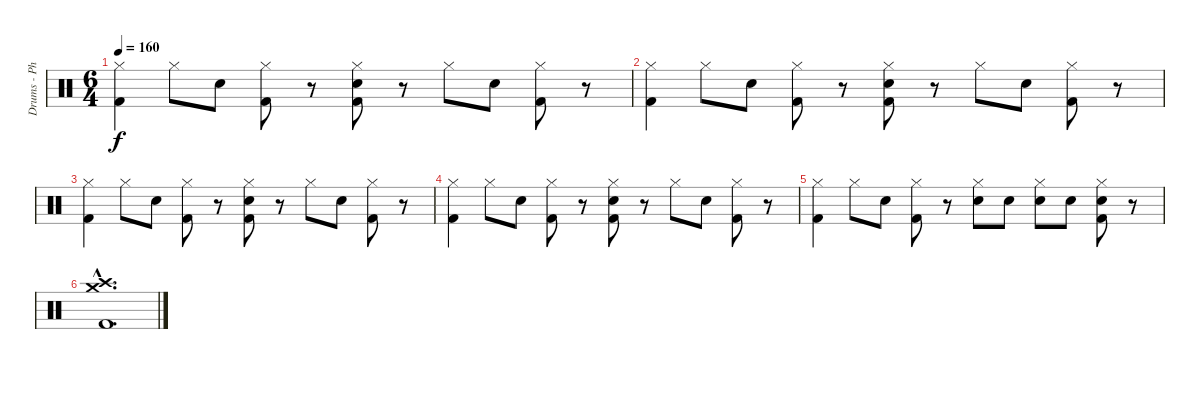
\track ("Drums - Phil Selway" "Drums - Ph") {instrument percussion}
\staff {score}
\articulation defaults
\ts (6 4)
\tempo 160
\clef neutral
\ks c
("Hi-Hat (closed)" "Kick (hit) 2").4{dy f} "Hi-Hat (closed)".8 "Snare (hit) 2".8 ("Hi-Hat (closed)" "Kick (hit) 2").8 r.8 ("Hi-Hat (closed)" "Snare (hit) 2" "Kick (hit) 2").8 r.8 "Hi-Hat (closed)".8 "Snare (hit) 2".8 ("Hi-Hat (closed)" "Kick (hit) 2").8 r.8 |
("Hi-Hat (closed)" "Kick (hit) 2").4 "Hi-Hat (closed)".8 "Snare (hit) 2".8 ("Hi-Hat (closed)" "Kick (hit) 2").8 r.8 ("Hi-Hat (closed)" "Snare (hit) 2" "Kick (hit) 2").8 r.8 "Hi-Hat (closed)".8 "Snare (hit) 2".8 ("Hi-Hat (closed)" "Kick (hit) 2").8 r.8 |
("Hi-Hat (closed)" "Kick (hit) 2").4 "Hi-Hat (closed)".8 "Snare (hit) 2".8 ("Hi-Hat (closed)" "Kick (hit) 2").8 r.8 ("Hi-Hat (closed)" "Snare (hit) 2" "Kick (hit) 2").8 r.8 "Hi-Hat (closed)".8 "Snare (hit) 2".8 ("Hi-Hat (closed)" "Kick (hit) 2").8 r.8 |
("Hi-Hat (closed)" "Kick (hit) 2").4 "Hi-Hat (closed)".8 "Snare (hit) 2".8 ("Hi-Hat (closed)" "Kick (hit) 2").8 r.8 ("Hi-Hat (closed)" "Snare (hit) 2" "Kick (hit) 2").8 r.8 "Hi-Hat (closed)".8 "Snare (hit) 2".8 ("Hi-Hat (closed)" "Kick (hit) 2").8 r.8 |
("Hi-Hat (closed)" "Kick (hit) 2").4 "Hi-Hat (closed)".8 "Snare (hit) 2".8 ("Hi-Hat (closed)" "Kick (hit) 2").8 r.8 ("Hi-Hat (closed)" "Snare (hit) 2").8 "Snare (hit) 2".8 ("Hi-Hat (closed)" "Snare (hit) 2").8 "Snare (hit) 2".8 ("Hi-Hat (closed)" "Snare (hit) 2" "Kick (hit) 2").8 r.8 |
("Crash medium (hit)"{hac} "Crash high (hit)"{hac} "Kick (hit) 2"{hac}).1{d}
